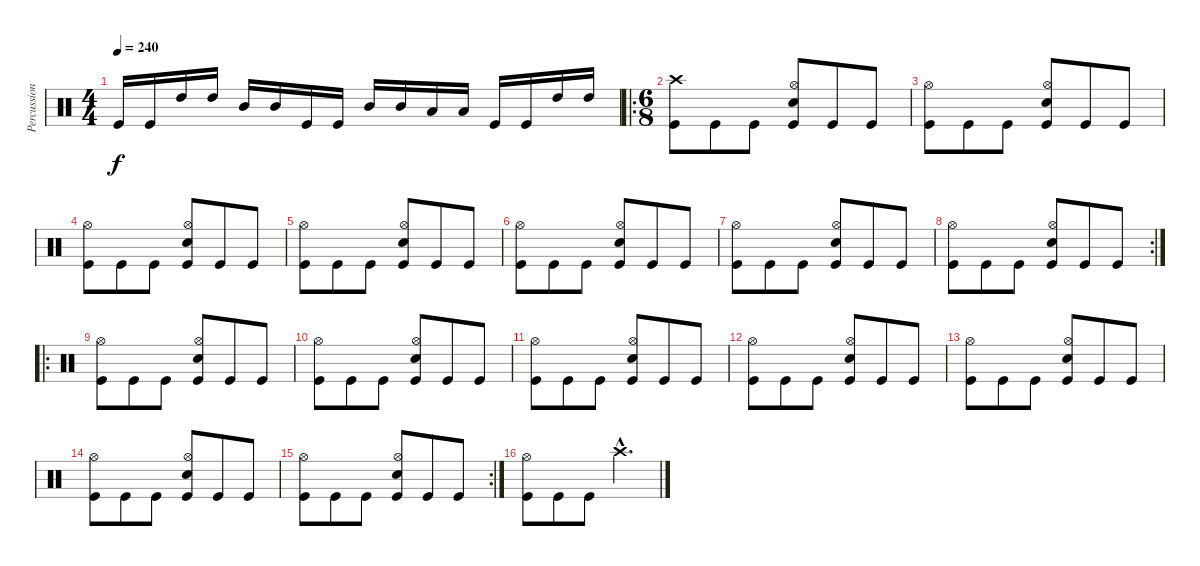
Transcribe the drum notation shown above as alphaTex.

\track ("Percussion" "Percussion") {instrument percussion}
\staff {score}
\articulation defaults
\ts (4 4)
\tempo 240
\clef neutral
\ks c "Kick (hit)".16{dy f} "Kick (hit)".16 "High Tom (hit)".16 "High Tom (hit)".16 "Mid Tom (hit)".16 "Mid Tom (hit)".16 "Kick (hit)".16 "Kick (hit)".16 "Mid Tom (hit)".16 "Mid Tom (hit)".16 "Low Tom (hit)".16 "Low Tom (hit)".16 "Kick (hit)".16 "Kick (hit)".16 "High Tom (hit)".16 "High Tom (hit)".16
|
\ro
\ts (6 8)
("Crash high (hit)" "Kick (hit)").8 "Kick (hit)".8 "Kick (hit)".8 ("Hi-Hat (open)" "Snare (hit) 2" "Kick (hit)").8 "Kick (hit)".8 "Kick (hit)".8 |
("Hi-Hat (open)" "Kick (hit)").8 "Kick (hit)".8 "Kick (hit)".8 ("Hi-Hat (open)" "Snare (hit) 2" "Kick (hit)").8 "Kick (hit)".8 "Kick (hit)".8 |
("Hi-Hat (open)" "Kick (hit)").8 "Kick (hit)".8 "Kick (hit)".8 ("Hi-Hat (open)" "Snare (hit) 2" "Kick (hit)").8 "Kick (hit)".8 "Kick (hit)".8 |
("Hi-Hat (open)" "Kick (hit)").8 "Kick (hit)".8 "Kick (hit)".8 ("Hi-Hat (open)" "Snare (hit) 2" "Kick (hit)").8 "Kick (hit)".8 "Kick (hit)".8 |
("Hi-Hat (open)" "Kick (hit)").8 "Kick (hit)".8 "Kick (hit)".8 ("Hi-Hat (open)" "Snare (hit) 2" "Kick (hit)").8 "Kick (hit)".8 "Kick (hit)".8 |
("Hi-Hat (open)" "Kick (hit)").8 "Kick (hit)".8 "Kick (hit)".8 ("Hi-Hat (open)" "Snare (hit) 2" "Kick (hit)").8 "Kick (hit)".8 "Kick (hit)".8 |
\rc 2
("Hi-Hat (open)" "Kick (hit)").8 "Kick (hit)".8 "Kick (hit)".8 ("Hi-Hat (open)" "Snare (hit) 2" "Kick (hit)").8 "Kick (hit)".8 "Kick (hit)".8 |
\ro
("Hi-Hat (open)" "Kick (hit)").8 "Kick (hit)".8 "Kick (hit)".8 ("Hi-Hat (open)" "Snare (hit) 2" "Kick (hit)").8 "Kick (hit)".8 "Kick (hit)".8 |
("Hi-Hat (open)" "Kick (hit)").8 "Kick (hit)".8 "Kick (hit)".8 ("Hi-Hat (open)" "Snare (hit) 2" "Kick (hit)").8 "Kick (hit)".8 "Kick (hit)".8 |
("Hi-Hat (open)" "Kick (hit)").8 "Kick (hit)".8 "Kick (hit)".8 ("Hi-Hat (open)" "Snare (hit) 2" "Kick (hit)").8 "Kick (hit)".8 "Kick (hit)".8 |
("Hi-Hat (open)" "Kick (hit)").8 "Kick (hit)".8 "Kick (hit)".8 ("Hi-Hat (open)" "Snare (hit) 2" "Kick (hit)").8 "Kick (hit)".8 "Kick (hit)".8 |
("Hi-Hat (open)" "Kick (hit)").8 "Kick (hit)".8 "Kick (hit)".8 ("Hi-Hat (open)" "Snare (hit) 2" "Kick (hit)").8 "Kick (hit)".8 "Kick (hit)".8 |
("Hi-Hat (open)" "Kick (hit)").8 "Kick (hit)".8 "Kick (hit)".8 ("Hi-Hat (open)" "Snare (hit) 2" "Kick (hit)").8 "Kick (hit)".8 "Kick (hit)".8 |
\rc 2
("Hi-Hat (open)" "Kick (hit)").8 "Kick (hit)".8 "Kick (hit)".8 ("Hi-Hat (open)" "Snare (hit) 2" "Kick (hit)").8 "Kick (hit)".8 "Kick (hit)".8 |
("Hi-Hat (open)" "Kick (hit)").8 "Kick (hit)".8 "Kick (hit)".8 "Crash high (hit)"{hac}.4{d}
